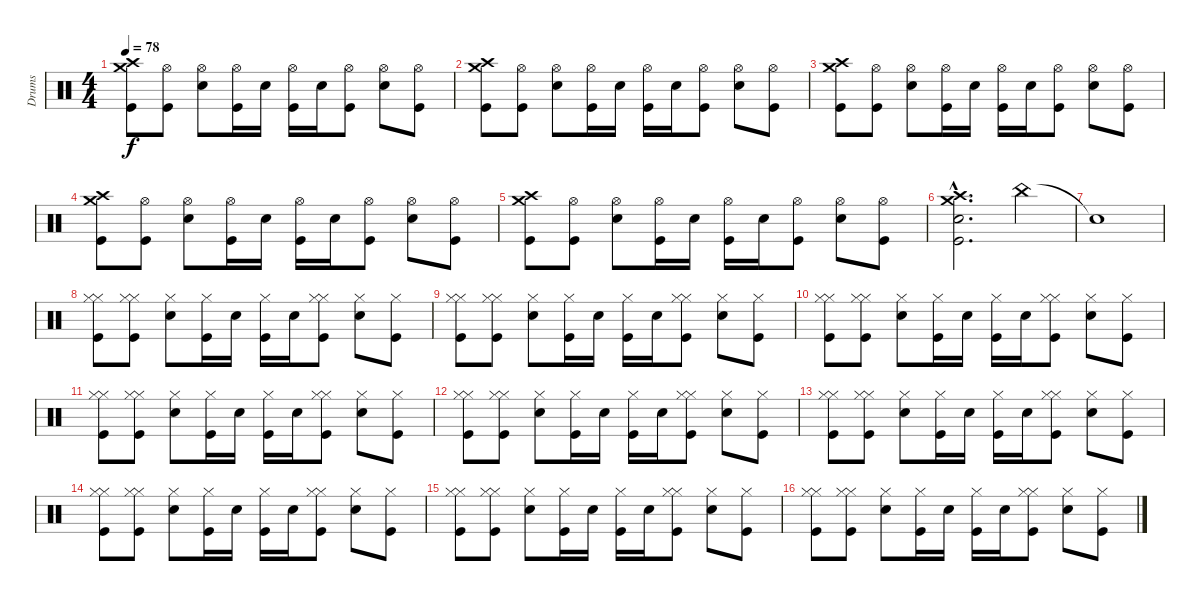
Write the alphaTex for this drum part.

\track ("Drums" "Drums") {instrument percussion}
\staff {score}
\articulation defaults
\ts (4 4)
\tempo 78
\clef neutral
\ks c
("Crash high (hit)" "Crash medium (hit)" "Kick (hit)").8{dy f} ("Hi-Hat (open)" "Kick (hit)").8 ("Electric Snare (hit)" "Hi-Hat (open)").8 ("Hi-Hat (open)" "Kick (hit)").16 "Electric Snare (hit)".16 ("Hi-Hat (open)" "Kick (hit)").16 "Electric Snare (hit)".16 ("Hi-Hat (open)" "Kick (hit)").8 ("Electric Snare (hit)" "Hi-Hat (open)").8 ("Hi-Hat (open)" "Kick (hit)").8 |
("Crash high (hit)" "Crash medium (hit)" "Kick (hit)").8 ("Hi-Hat (open)" "Kick (hit)").8 ("Electric Snare (hit)" "Hi-Hat (open)").8 ("Hi-Hat (open)" "Kick (hit)").16 "Electric Snare (hit)".16 ("Hi-Hat (open)" "Kick (hit)").16 "Electric Snare (hit)".16 ("Hi-Hat (open)" "Kick (hit)").8 ("Electric Snare (hit)" "Hi-Hat (open)").8 ("Hi-Hat (open)" "Kick (hit)").8 |
("Crash high (hit)" "Crash medium (hit)" "Kick (hit)").8 ("Hi-Hat (open)" "Kick (hit)").8 ("Electric Snare (hit)" "Hi-Hat (open)").8 ("Hi-Hat (open)" "Kick (hit)").16 "Electric Snare (hit)".16 ("Hi-Hat (open)" "Kick (hit)").16 "Electric Snare (hit)".16 ("Hi-Hat (open)" "Kick (hit)").8 ("Electric Snare (hit)" "Hi-Hat (open)").8 ("Hi-Hat (open)" "Kick (hit)").8 |
("Crash high (hit)" "Crash medium (hit)" "Kick (hit)").8 ("Hi-Hat (open)" "Kick (hit)").8 ("Electric Snare (hit)" "Hi-Hat (open)").8 ("Hi-Hat (open)" "Kick (hit)").16 "Electric Snare (hit)".16 ("Hi-Hat (open)" "Kick (hit)").16 "Electric Snare (hit)".16 ("Hi-Hat (open)" "Kick (hit)").8 ("Electric Snare (hit)" "Hi-Hat (open)").8 ("Hi-Hat (open)" "Kick (hit)").8 |
("Crash high (hit)" "Crash medium (hit)" "Kick (hit)").8 ("Hi-Hat (open)" "Kick (hit)").8 ("Electric Snare (hit)" "Hi-Hat (open)").8 ("Hi-Hat (open)" "Kick (hit)").16 "Electric Snare (hit)".16 ("Hi-Hat (open)" "Kick (hit)").16 "Electric Snare (hit)".16 ("Hi-Hat (open)" "Kick (hit)").8 ("Electric Snare (hit)" "Hi-Hat (open)").8 ("Hi-Hat (open)" "Kick (hit)").8 |
("Crash high (hit)"{hac} "Crash medium (hit)"{hac} "Electric Snare (hit)"{hac} "Kick (hit)"{hac}).2{d} "China (hit)".4 |
"Snare (hit)"{t}.1 |
("Hi-Hat (closed)" "Hi-Hat (closed)" "Kick (hit)").8 ("Hi-Hat (closed)" "Hi-Hat (closed)" "Kick (hit)").8 ("Snare (hit) 2" "Hi-Hat (closed)").8 ("Hi-Hat (closed)" "Kick (hit)").16 "Snare (hit) 2".16 ("Hi-Hat (closed)" "Kick (hit)").16 "Snare (hit) 2".16 ("Hi-Hat (closed)" "Hi-Hat (closed)" "Kick (hit)").8 ("Snare (hit) 2" "Hi-Hat (closed)").8 ("Hi-Hat (closed)" "Kick (hit)").8 |
("Hi-Hat (closed)" "Hi-Hat (closed)" "Kick (hit)").8 ("Hi-Hat (closed)" "Hi-Hat (closed)" "Kick (hit)").8 ("Snare (hit) 2" "Hi-Hat (closed)").8 ("Hi-Hat (closed)" "Kick (hit)").16 "Snare (hit) 2".16 ("Hi-Hat (closed)" "Kick (hit)").16 "Snare (hit) 2".16 ("Hi-Hat (closed)" "Hi-Hat (closed)" "Kick (hit)").8 ("Snare (hit) 2" "Hi-Hat (closed)").8 ("Hi-Hat (closed)" "Kick (hit)").8 |
("Hi-Hat (closed)" "Hi-Hat (closed)" "Kick (hit)").8 ("Hi-Hat (closed)" "Hi-Hat (closed)" "Kick (hit)").8 ("Snare (hit) 2" "Hi-Hat (closed)").8 ("Hi-Hat (closed)" "Kick (hit)").16 "Snare (hit) 2".16 ("Hi-Hat (closed)" "Kick (hit)").16 "Snare (hit) 2".16 ("Hi-Hat (closed)" "Hi-Hat (closed)" "Kick (hit)").8 ("Snare (hit) 2" "Hi-Hat (closed)").8 ("Hi-Hat (closed)" "Kick (hit)").8 |
("Hi-Hat (closed)" "Hi-Hat (closed)" "Kick (hit)").8 ("Hi-Hat (closed)" "Hi-Hat (closed)" "Kick (hit)").8 ("Snare (hit) 2" "Hi-Hat (closed)").8 ("Hi-Hat (closed)" "Kick (hit)").16 "Snare (hit) 2".16 ("Hi-Hat (closed)" "Kick (hit)").16 "Snare (hit) 2".16 ("Hi-Hat (closed)" "Hi-Hat (closed)" "Kick (hit)").8 ("Snare (hit) 2" "Hi-Hat (closed)").8 ("Hi-Hat (closed)" "Kick (hit)").8 |
("Hi-Hat (closed)" "Hi-Hat (closed)" "Kick (hit)").8 ("Hi-Hat (closed)" "Hi-Hat (closed)" "Kick (hit)").8 ("Snare (hit) 2" "Hi-Hat (closed)").8 ("Hi-Hat (closed)" "Kick (hit)").16 "Snare (hit) 2".16 ("Hi-Hat (closed)" "Kick (hit)").16 "Snare (hit) 2".16 ("Hi-Hat (closed)" "Hi-Hat (closed)" "Kick (hit)").8 ("Snare (hit) 2" "Hi-Hat (closed)").8 ("Hi-Hat (closed)" "Kick (hit)").8 |
("Hi-Hat (closed)" "Hi-Hat (closed)" "Kick (hit)").8 ("Hi-Hat (closed)" "Hi-Hat (closed)" "Kick (hit)").8 ("Snare (hit) 2" "Hi-Hat (closed)").8 ("Hi-Hat (closed)" "Kick (hit)").16 "Snare (hit) 2".16 ("Hi-Hat (closed)" "Kick (hit)").16 "Snare (hit) 2".16 ("Hi-Hat (closed)" "Hi-Hat (closed)" "Kick (hit)").8 ("Snare (hit) 2" "Hi-Hat (closed)").8 ("Hi-Hat (closed)" "Kick (hit)").8 |
("Hi-Hat (closed)" "Hi-Hat (closed)" "Kick (hit)").8 ("Hi-Hat (closed)" "Hi-Hat (closed)" "Kick (hit)").8 ("Snare (hit) 2" "Hi-Hat (closed)").8 ("Hi-Hat (closed)" "Kick (hit)").16 "Snare (hit) 2".16 ("Hi-Hat (closed)" "Kick (hit)").16 "Snare (hit) 2".16 ("Hi-Hat (closed)" "Hi-Hat (closed)" "Kick (hit)").8 ("Snare (hit) 2" "Hi-Hat (closed)").8 ("Hi-Hat (closed)" "Kick (hit)").8 |
("Hi-Hat (closed)" "Hi-Hat (closed)" "Kick (hit)").8 ("Hi-Hat (closed)" "Hi-Hat (closed)" "Kick (hit)").8 ("Snare (hit) 2" "Hi-Hat (closed)").8 ("Hi-Hat (closed)" "Kick (hit)").16 "Snare (hit) 2".16 ("Hi-Hat (closed)" "Kick (hit)").16 "Snare (hit) 2".16 ("Hi-Hat (closed)" "Hi-Hat (closed)" "Kick (hit)").8 ("Snare (hit) 2" "Hi-Hat (closed)").8 ("Hi-Hat (closed)" "Kick (hit)").8 |
("Hi-Hat (closed)" "Hi-Hat (closed)" "Kick (hit)").8 ("Hi-Hat (closed)" "Hi-Hat (closed)" "Kick (hit)").8 ("Snare (hit) 2" "Hi-Hat (closed)").8 ("Hi-Hat (closed)" "Kick (hit)").16 "Snare (hit) 2".16 ("Hi-Hat (closed)" "Kick (hit)").16 "Snare (hit) 2".16 ("Hi-Hat (closed)" "Hi-Hat (closed)" "Kick (hit)").8 ("Snare (hit) 2" "Hi-Hat (closed)").8 ("Hi-Hat (closed)" "Kick (hit)").8
